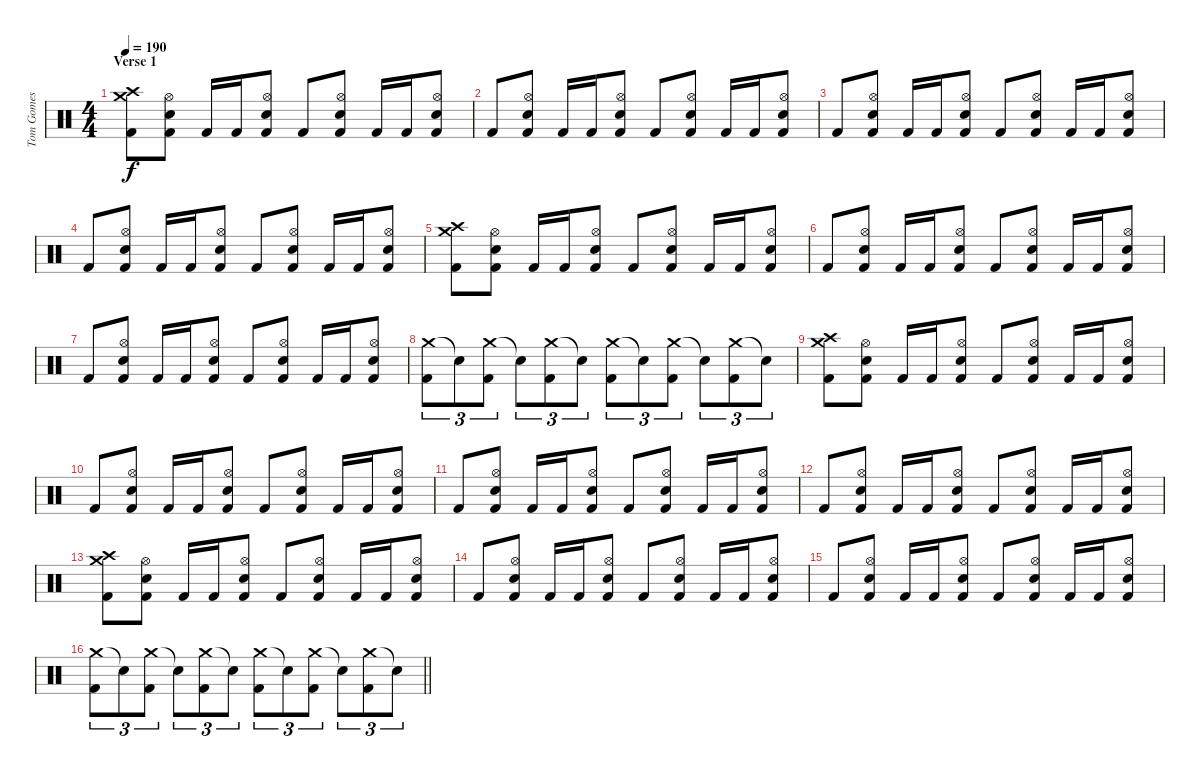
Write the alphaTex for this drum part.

\track ("Tom Gomes" "Tom Gomes") {instrument percussion}
\staff {score}
\articulation defaults
\ts (4 4)
\section ("" "Verse 1")
\tempo 190
\clef neutral
\ks c
("Crash high (hit)" "Crash medium (hit)" "Kick (hit) 2").8{dy f} ("Hi-Hat (open)" "Snare (hit) 2" "Kick (hit) 2").8 "Kick (hit) 2".16 "Kick (hit) 2".16 ("Hi-Hat (open)" "Snare (hit) 2" "Kick (hit) 2").8 "Kick (hit) 2".8 ("Hi-Hat (open)" "Snare (hit) 2" "Kick (hit) 2").8 "Kick (hit) 2".16 "Kick (hit) 2".16 ("Hi-Hat (open)" "Snare (hit) 2" "Kick (hit) 2").8 |
"Kick (hit) 2".8 ("Hi-Hat (open)" "Snare (hit) 2" "Kick (hit) 2").8 "Kick (hit) 2".16 "Kick (hit) 2".16 ("Hi-Hat (open)" "Snare (hit) 2" "Kick (hit) 2").8 "Kick (hit) 2".8 ("Hi-Hat (open)" "Snare (hit) 2" "Kick (hit) 2").8 "Kick (hit) 2".16 "Kick (hit) 2".16 ("Hi-Hat (open)" "Snare (hit) 2" "Kick (hit) 2").8 |
"Kick (hit) 2".8 ("Hi-Hat (open)" "Snare (hit) 2" "Kick (hit) 2").8 "Kick (hit) 2".16 "Kick (hit) 2".16 ("Hi-Hat (open)" "Snare (hit) 2" "Kick (hit) 2").8 "Kick (hit) 2".8 ("Hi-Hat (open)" "Snare (hit) 2" "Kick (hit) 2").8 "Kick (hit) 2".16 "Kick (hit) 2".16 ("Hi-Hat (open)" "Snare (hit) 2" "Kick (hit) 2").8 |
"Kick (hit) 2".8 ("Hi-Hat (open)" "Snare (hit) 2" "Kick (hit) 2").8 "Kick (hit) 2".16 "Kick (hit) 2".16 ("Hi-Hat (open)" "Snare (hit) 2" "Kick (hit) 2").8 "Kick (hit) 2".8 ("Hi-Hat (open)" "Snare (hit) 2" "Kick (hit) 2").8 "Kick (hit) 2".16 "Kick (hit) 2".16 ("Hi-Hat (open)" "Snare (hit) 2" "Kick (hit) 2").8 |
("Crash high (hit)" "Crash medium (hit)" "Kick (hit) 2").8 ("Hi-Hat (open)" "Snare (hit) 2" "Kick (hit) 2").8 "Kick (hit) 2".16 "Kick (hit) 2".16 ("Hi-Hat (open)" "Snare (hit) 2" "Kick (hit) 2").8 "Kick (hit) 2".8 ("Hi-Hat (open)" "Snare (hit) 2" "Kick (hit) 2").8 "Kick (hit) 2".16 "Kick (hit) 2".16 ("Hi-Hat (open)" "Snare (hit) 2" "Kick (hit) 2").8 |
"Kick (hit) 2".8 ("Hi-Hat (open)" "Snare (hit) 2" "Kick (hit) 2").8 "Kick (hit) 2".16 "Kick (hit) 2".16 ("Hi-Hat (open)" "Snare (hit) 2" "Kick (hit) 2").8 "Kick (hit) 2".8 ("Hi-Hat (open)" "Snare (hit) 2" "Kick (hit) 2").8 "Kick (hit) 2".16 "Kick (hit) 2".16 ("Hi-Hat (open)" "Snare (hit) 2" "Kick (hit) 2").8 |
"Kick (hit) 2".8 ("Hi-Hat (open)" "Snare (hit) 2" "Kick (hit) 2").8 "Kick (hit) 2".16 "Kick (hit) 2".16 ("Hi-Hat (open)" "Snare (hit) 2" "Kick (hit) 2").8 "Kick (hit) 2".8 ("Hi-Hat (open)" "Snare (hit) 2" "Kick (hit) 2").8 "Kick (hit) 2".16 "Kick (hit) 2".16 ("Hi-Hat (open)" "Snare (hit) 2" "Kick (hit) 2").8 |
("Crash medium (hit)" "Kick (hit) 2").8{tu (3 2)} "Snare (hit)"{t}.8{tu (3 2)} ("Crash medium (hit)" "Kick (hit) 2").8{tu (3 2)} "Snare (hit)"{t}.8{tu (3 2)} ("Crash medium (hit)" "Kick (hit) 2").8{tu (3 2)} "Snare (hit)"{t}.8{tu (3 2)} ("Crash medium (hit)" "Kick (hit) 2").8{tu (3 2)} "Snare (hit)"{t}.8{tu (3 2)} ("Crash medium (hit)" "Kick (hit) 2").8{tu (3 2)} "Snare (hit)"{t}.8{tu (3 2)} ("Crash medium (hit)" "Kick (hit) 2").8{tu (3 2)} "Snare (hit)"{t}.8{tu (3 2)} |
("Crash high (hit)" "Crash medium (hit)" "Kick (hit) 2").8 ("Hi-Hat (open)" "Snare (hit) 2" "Kick (hit) 2").8 "Kick (hit) 2".16 "Kick (hit) 2".16 ("Hi-Hat (open)" "Snare (hit) 2" "Kick (hit) 2").8 "Kick (hit) 2".8 ("Hi-Hat (open)" "Snare (hit) 2" "Kick (hit) 2").8 "Kick (hit) 2".16 "Kick (hit) 2".16 ("Hi-Hat (open)" "Snare (hit) 2" "Kick (hit) 2").8 |
"Kick (hit) 2".8 ("Hi-Hat (open)" "Snare (hit) 2" "Kick (hit) 2").8 "Kick (hit) 2".16 "Kick (hit) 2".16 ("Hi-Hat (open)" "Snare (hit) 2" "Kick (hit) 2").8 "Kick (hit) 2".8 ("Hi-Hat (open)" "Snare (hit) 2" "Kick (hit) 2").8 "Kick (hit) 2".16 "Kick (hit) 2".16 ("Hi-Hat (open)" "Snare (hit) 2" "Kick (hit) 2").8 |
"Kick (hit) 2".8 ("Hi-Hat (open)" "Snare (hit) 2" "Kick (hit) 2").8 "Kick (hit) 2".16 "Kick (hit) 2".16 ("Hi-Hat (open)" "Snare (hit) 2" "Kick (hit) 2").8 "Kick (hit) 2".8 ("Hi-Hat (open)" "Snare (hit) 2" "Kick (hit) 2").8 "Kick (hit) 2".16 "Kick (hit) 2".16 ("Hi-Hat (open)" "Snare (hit) 2" "Kick (hit) 2").8 |
"Kick (hit) 2".8 ("Hi-Hat (open)" "Snare (hit) 2" "Kick (hit) 2").8 "Kick (hit) 2".16 "Kick (hit) 2".16 ("Hi-Hat (open)" "Snare (hit) 2" "Kick (hit) 2").8 "Kick (hit) 2".8 ("Hi-Hat (open)" "Snare (hit) 2" "Kick (hit) 2").8 "Kick (hit) 2".16 "Kick (hit) 2".16 ("Hi-Hat (open)" "Snare (hit) 2" "Kick (hit) 2").8 |
("Crash high (hit)" "Crash medium (hit)" "Kick (hit) 2").8 ("Hi-Hat (open)" "Snare (hit) 2" "Kick (hit) 2").8 "Kick (hit) 2".16 "Kick (hit) 2".16 ("Hi-Hat (open)" "Snare (hit) 2" "Kick (hit) 2").8 "Kick (hit) 2".8 ("Hi-Hat (open)" "Snare (hit) 2" "Kick (hit) 2").8 "Kick (hit) 2".16 "Kick (hit) 2".16 ("Hi-Hat (open)" "Snare (hit) 2" "Kick (hit) 2").8 |
"Kick (hit) 2".8 ("Hi-Hat (open)" "Snare (hit) 2" "Kick (hit) 2").8 "Kick (hit) 2".16 "Kick (hit) 2".16 ("Hi-Hat (open)" "Snare (hit) 2" "Kick (hit) 2").8 "Kick (hit) 2".8 ("Hi-Hat (open)" "Snare (hit) 2" "Kick (hit) 2").8 "Kick (hit) 2".16 "Kick (hit) 2".16 ("Hi-Hat (open)" "Snare (hit) 2" "Kick (hit) 2").8 |
"Kick (hit) 2".8 ("Hi-Hat (open)" "Snare (hit) 2" "Kick (hit) 2").8 "Kick (hit) 2".16 "Kick (hit) 2".16 ("Hi-Hat (open)" "Snare (hit) 2" "Kick (hit) 2").8 "Kick (hit) 2".8 ("Hi-Hat (open)" "Snare (hit) 2" "Kick (hit) 2").8 "Kick (hit) 2".16 "Kick (hit) 2".16 ("Hi-Hat (open)" "Snare (hit) 2" "Kick (hit) 2").8 |
\barLineRight lightlight
("Crash medium (hit)" "Kick (hit) 2").8{tu (3 2)} "Snare (hit)"{t}.8{tu (3 2)} ("Crash medium (hit)" "Kick (hit) 2").8{tu (3 2)} "Snare (hit)"{t}.8{tu (3 2)} ("Crash medium (hit)" "Kick (hit) 2").8{tu (3 2)} "Snare (hit)"{t}.8{tu (3 2)} ("Crash medium (hit)" "Kick (hit) 2").8{tu (3 2)} "Snare (hit)"{t}.8{tu (3 2)} ("Crash medium (hit)" "Kick (hit) 2").8{tu (3 2)} "Snare (hit)"{t}.8{tu (3 2)} ("Crash medium (hit)" "Kick (hit) 2").8{tu (3 2)} "Snare (hit)"{t}.8{tu (3 2)}
